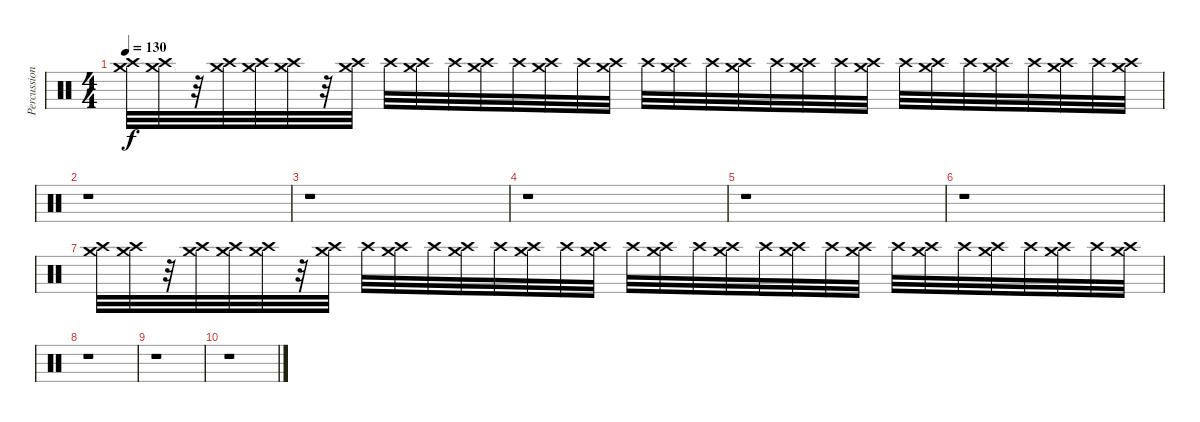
\track ("Percussioni" "Percussion") {instrument percussion}
\staff {score}
\articulation defaults
\ts (4 4)
\tempo 130
\clef neutral
\ks c
("Crash high (hit)" "Crash medium (hit)").32{dy f volume 0} ("Crash high (hit)" "Crash medium (hit)").32{volume 0} r.32 ("Crash high (hit)" "Crash medium (hit)").32{volume 0} ("Crash high (hit)" "Crash medium (hit)").32{volume 1} ("Crash high (hit)" "Crash medium (hit)").32{volume 1} r.32 ("Crash high (hit)" "Crash medium (hit)").32{volume 1} "Crash high (hit)".32{volume 1} ("Crash high (hit)" "Crash medium (hit)").32{volume 1} "Crash high (hit)".32{volume 2} ("Crash high (hit)" "Crash medium (hit)").32{volume 2} "Crash high (hit)".32{volume 3} ("Crash high (hit)" "Crash medium (hit)").32{volume 3} "Crash high (hit)".32{volume 4} ("Crash high (hit)" "Crash medium (hit)").32{volume 4} "Crash high (hit)".32{volume 5} ("Crash high (hit)" "Crash medium (hit)").32{volume 5} "Crash high (hit)".32{volume 6} ("Crash high (hit)" "Crash medium (hit)").32{volume 6} "Crash high (hit)".32{volume 7} ("Crash high (hit)" "Crash medium (hit)").32{volume 7} "Crash high (hit)".32{volume 8} ("Crash high (hit)" "Crash medium (hit)").32{volume 8} "Crash high (hit)".32{volume 9} ("Crash high (hit)" "Crash medium (hit)").32{volume 9} "Crash high (hit)".32{volume 10} ("Crash high (hit)" "Crash medium (hit)").32{volume 10} "Crash high (hit)".32{volume 11} ("Crash high (hit)" "Crash medium (hit)").32{volume 11} "Crash high (hit)".32 ("Crash high (hit)" "Crash medium (hit)").32 |
r.1 |
r.1 |
r.1 |
r.1 |
r.1 |
("Crash high (hit)" "Crash medium (hit)").32{volume 0} ("Crash high (hit)" "Crash medium (hit)").32{volume 0} r.32 ("Crash high (hit)" "Crash medium (hit)").32{volume 0} ("Crash high (hit)" "Crash medium (hit)").32{volume 1} ("Crash high (hit)" "Crash medium (hit)").32{volume 1} r.32 ("Crash high (hit)" "Crash medium (hit)").32{volume 1} "Crash high (hit)".32{volume 1} ("Crash high (hit)" "Crash medium (hit)").32{volume 1} "Crash high (hit)".32{volume 2} ("Crash high (hit)" "Crash medium (hit)").32{volume 2} "Crash high (hit)".32{volume 3} ("Crash high (hit)" "Crash medium (hit)").32{volume 3} "Crash high (hit)".32{volume 4} ("Crash high (hit)" "Crash medium (hit)").32{volume 4} "Crash high (hit)".32{volume 5} ("Crash high (hit)" "Crash medium (hit)").32{volume 5} "Crash high (hit)".32{volume 6} ("Crash high (hit)" "Crash medium (hit)").32{volume 6} "Crash high (hit)".32{volume 7} ("Crash high (hit)" "Crash medium (hit)").32{volume 7} "Crash high (hit)".32{volume 8} ("Crash high (hit)" "Crash medium (hit)").32{volume 8} "Crash high (hit)".32{volume 9} ("Crash high (hit)" "Crash medium (hit)").32{volume 9} "Crash high (hit)".32{volume 10} ("Crash high (hit)" "Crash medium (hit)").32{volume 10} "Crash high (hit)".32{volume 11} ("Crash high (hit)" "Crash medium (hit)").32{volume 11} "Crash high (hit)".32 ("Crash high (hit)" "Crash medium (hit)").32 |
r.1 |
r.1 |
r.1
